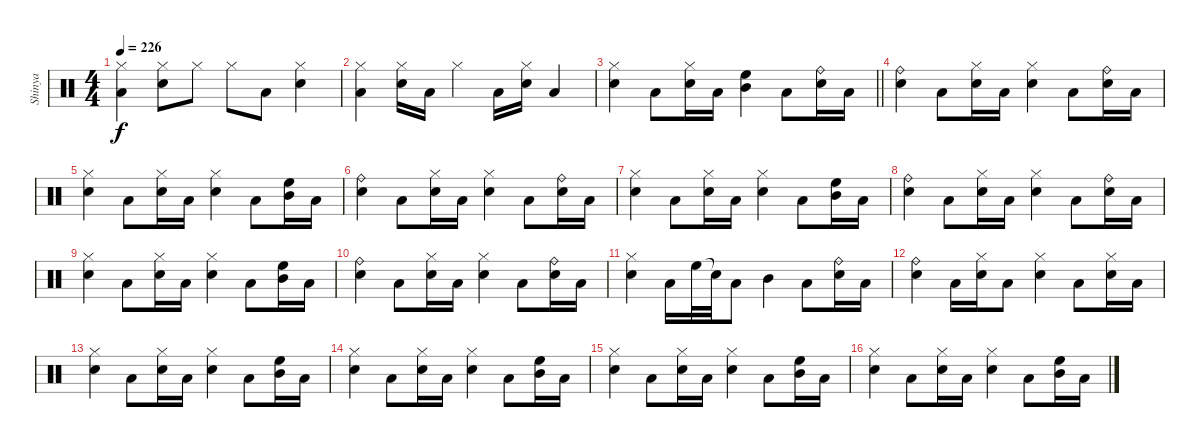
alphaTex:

\track ("Shinya" "Shinya") {instrument percussion}
\staff {score}
\articulation defaults
\ts (4 4)
\tempo 226
\clef neutral
\ks c
("Hi-Hat (closed)" "Low Floor Tom (hit)").4{dy f} ("Hi-Hat (closed)" "Snare (hit) 2").8 "Hi-Hat (closed)".8 "Hi-Hat (closed)".8 "Low Floor Tom (hit)".8 ("Hi-Hat (closed)" "Snare (hit) 2").4 |
("Hi-Hat (closed)" "Low Floor Tom (hit)").4 ("Hi-Hat (closed)" "Snare (hit) 2").16 "Low Floor Tom (hit)".16 "Hi-Hat (closed)".4 "Low Floor Tom (hit)".16 ("Hi-Hat (closed)" "Snare (hit) 2").16 "Low Floor Tom (hit)".4 |
\barLineRight lightlight
("Hi-Hat (closed)" "Snare (hit) 2").4 "Low Floor Tom (hit)".8 ("Hi-Hat (closed)" "Snare (hit) 2").16 "Low Floor Tom (hit)".16 ("High Floor Tom (hit)" "Mid Tom (hit)").4 "Low Floor Tom (hit)".8 ("Ride (bell)" "Snare (hit) 2").16 "Low Floor Tom (hit)".16 |
("Ride (bell)" "Snare (hit) 2").4 "Low Floor Tom (hit)".8 ("Hi-Hat (closed)" "Snare (hit) 2").16 "Low Floor Tom (hit)".16 ("Snare (hit) 2" "Hi-Hat (closed)").4 "Low Floor Tom (hit)".8 ("Ride (bell)" "Snare (hit) 2").16 "Low Floor Tom (hit)".16 |
("Hi-Hat (closed)" "Snare (hit) 2").4 "Low Floor Tom (hit)".8 ("Hi-Hat (closed)" "Snare (hit) 2").16 "Low Floor Tom (hit)".16 ("Snare (hit) 2" "Hi-Hat (closed)").4 "Low Floor Tom (hit)".8 ("High Floor Tom (hit)" "Mid Tom (hit)").16 "Low Floor Tom (hit)".16 |
("Ride (bell)" "Snare (hit) 2").4 "Low Floor Tom (hit)".8 ("Hi-Hat (closed)" "Snare (hit) 2").16 "Low Floor Tom (hit)".16 ("Snare (hit) 2" "Hi-Hat (closed)").4 "Low Floor Tom (hit)".8 ("Ride (bell)" "Snare (hit) 2").16 "Low Floor Tom (hit)".16 |
("Hi-Hat (closed)" "Snare (hit) 2").4 "Low Floor Tom (hit)".8 ("Hi-Hat (closed)" "Snare (hit) 2").16 "Low Floor Tom (hit)".16 ("Snare (hit) 2" "Hi-Hat (closed)").4 "Low Floor Tom (hit)".8 ("High Floor Tom (hit)" "Mid Tom (hit)").16 "Low Floor Tom (hit)".16 |
("Ride (bell)" "Snare (hit) 2").4 "Low Floor Tom (hit)".8 ("Hi-Hat (closed)" "Snare (hit) 2").16 "Low Floor Tom (hit)".16 ("Snare (hit) 2" "Hi-Hat (closed)").4 "Low Floor Tom (hit)".8 ("Ride (bell)" "Snare (hit) 2").16 "Low Floor Tom (hit)".16 |
("Hi-Hat (closed)" "Snare (hit) 2").4 "Low Floor Tom (hit)".8 ("Hi-Hat (closed)" "Snare (hit) 2").16 "Low Floor Tom (hit)".16 ("Snare (hit) 2" "Hi-Hat (closed)").4 "Low Floor Tom (hit)".8 ("High Floor Tom (hit)" "Mid Tom (hit)").16 "Low Floor Tom (hit)".16 |
("Ride (bell)" "Snare (hit) 2").4 "Low Floor Tom (hit)".8 ("Hi-Hat (closed)" "Snare (hit) 2").16 "Low Floor Tom (hit)".16 ("Snare (hit) 2" "Hi-Hat (closed)").4 "Low Floor Tom (hit)".8 ("Ride (bell)" "Snare (hit) 2").16 "Low Floor Tom (hit)".16 |
("Hi-Hat (closed)" "Snare (hit) 2").4 "Low Floor Tom (hit)".16 "High Floor Tom (hit)".32 "Snare (hit)"{t}.32 "Low Floor Tom (hit)".8 "Mid Tom (hit)".4 "Low Floor Tom (hit)".8 ("Ride (bell)" "Snare (hit) 2").16 "Low Floor Tom (hit)".16 |
("Ride (bell)" "Snare (hit) 2").4 "Low Floor Tom (hit)".16 ("Hi-Hat (closed)" "Snare (hit) 2").16 "Low Floor Tom (hit)".8 ("Snare (hit) 2" "Hi-Hat (closed)").4 "Low Floor Tom (hit)".8 ("Hi-Hat (closed)" "Snare (hit) 2").16 "Low Floor Tom (hit)".16 |
("Hi-Hat (closed)" "Snare (hit) 2").4 "Low Floor Tom (hit)".8 ("Hi-Hat (closed)" "Snare (hit) 2").16 "Low Floor Tom (hit)".16 ("Snare (hit) 2" "Hi-Hat (closed)").4 "Low Floor Tom (hit)".8 ("High Floor Tom (hit)" "Mid Tom (hit)").16 "Low Floor Tom (hit)".16 |
("Hi-Hat (closed)" "Snare (hit) 2").4 "Low Floor Tom (hit)".8 ("Hi-Hat (closed)" "Snare (hit) 2").16 "Low Floor Tom (hit)".16 ("Snare (hit) 2" "Hi-Hat (closed)").4 "Low Floor Tom (hit)".8 ("High Floor Tom (hit)" "Mid Tom (hit)").16 "Low Floor Tom (hit)".16 |
("Hi-Hat (closed)" "Snare (hit) 2").4 "Low Floor Tom (hit)".8 ("Hi-Hat (closed)" "Snare (hit) 2").16 "Low Floor Tom (hit)".16 ("Snare (hit) 2" "Hi-Hat (closed)").4 "Low Floor Tom (hit)".8 ("High Floor Tom (hit)" "Mid Tom (hit)").16 "Low Floor Tom (hit)".16 |
("Hi-Hat (closed)" "Snare (hit) 2").4 "Low Floor Tom (hit)".8 ("Hi-Hat (closed)" "Snare (hit) 2").16 "Low Floor Tom (hit)".16 ("Snare (hit) 2" "Hi-Hat (closed)").4 "Low Floor Tom (hit)".8 ("High Floor Tom (hit)" "Mid Tom (hit)").16 "Low Floor Tom (hit)".16
